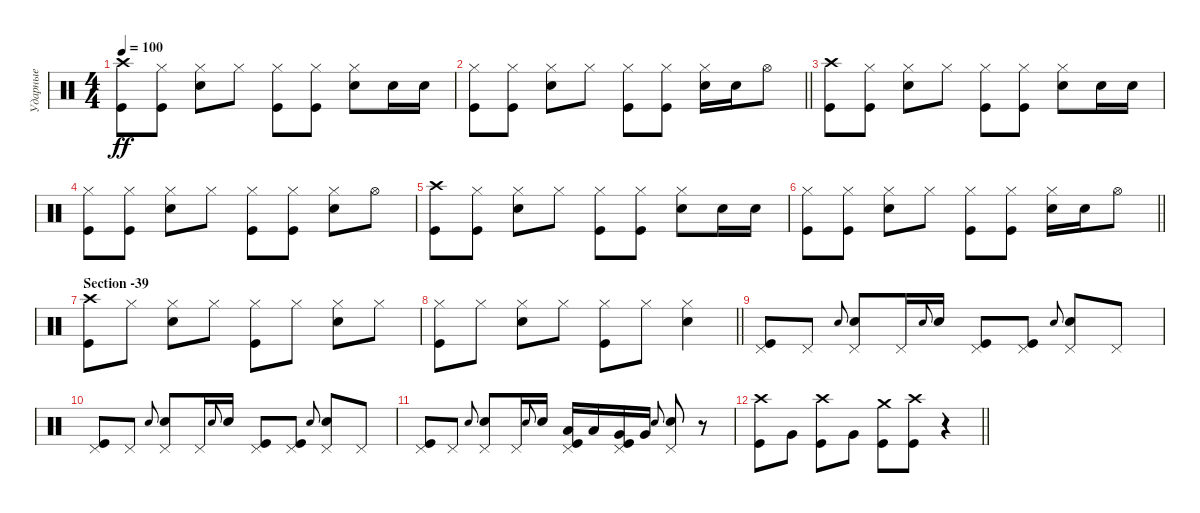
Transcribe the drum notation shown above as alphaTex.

\track ("Ударные" "Ударные") {instrument percussion}
\staff {score}
\articulation defaults
\ts (4 4)
\tempo 100
\clef neutral
\ks c
("Crash high (hit)" "Kick (hit)").8{dy ff} ("Hi-Hat (closed)" "Kick (hit)").8 ("Hi-Hat (closed)" "Electric Snare (hit)").8 "Hi-Hat (closed)".8 ("Hi-Hat (closed)" "Kick (hit)").8 ("Hi-Hat (closed)" "Kick (hit)").8 ("Hi-Hat (closed)" "Electric Snare (hit)").8 "Electric Snare (hit)".16 "Electric Snare (hit)".16 |
\barLineRight lightlight
("Hi-Hat (closed)" "Kick (hit)").8 ("Hi-Hat (closed)" "Kick (hit)").8 ("Hi-Hat (closed)" "Electric Snare (hit)").8 "Hi-Hat (closed)".8 ("Hi-Hat (closed)" "Kick (hit)").8 ("Hi-Hat (closed)" "Kick (hit)").8 ("Hi-Hat (closed)" "Electric Snare (hit)").16 "Electric Snare (hit)".16 "Hi-Hat (open)".8 |
("Crash high (hit)" "Kick (hit)").8 ("Hi-Hat (closed)" "Kick (hit)").8 ("Hi-Hat (closed)" "Electric Snare (hit)").8 "Hi-Hat (closed)".8 ("Hi-Hat (closed)" "Kick (hit)").8 ("Hi-Hat (closed)" "Kick (hit)").8 ("Hi-Hat (closed)" "Electric Snare (hit)").8 "Electric Snare (hit)".16 "Electric Snare (hit)".16 |
("Hi-Hat (closed)" "Kick (hit)").8 ("Hi-Hat (closed)" "Kick (hit)").8 ("Hi-Hat (closed)" "Electric Snare (hit)").8 "Hi-Hat (closed)".8 ("Hi-Hat (closed)" "Kick (hit)").8 ("Hi-Hat (closed)" "Kick (hit)").8 ("Hi-Hat (closed)" "Electric Snare (hit)").8 "Hi-Hat (open)".8 |
("Crash high (hit)" "Kick (hit)").8 ("Hi-Hat (closed)" "Kick (hit)").8 ("Hi-Hat (closed)" "Electric Snare (hit)").8 "Hi-Hat (closed)".8 ("Hi-Hat (closed)" "Kick (hit)").8 ("Hi-Hat (closed)" "Kick (hit)").8 ("Hi-Hat (closed)" "Electric Snare (hit)").8 "Electric Snare (hit)".16 "Electric Snare (hit)".16 |
\barLineRight lightlight
("Hi-Hat (closed)" "Kick (hit)").8 ("Hi-Hat (closed)" "Kick (hit)").8 ("Hi-Hat (closed)" "Electric Snare (hit)").8 "Hi-Hat (closed)".8 ("Hi-Hat (closed)" "Kick (hit)").8 ("Hi-Hat (closed)" "Kick (hit)").8 ("Hi-Hat (closed)" "Electric Snare (hit)").16 "Electric Snare (hit)".16 "Hi-Hat (open)".8 |
\section ("" "Section -39")
("Crash high (hit)" "Kick (hit)").8 "Hi-Hat (closed)".8 ("Hi-Hat (closed)" "Electric Snare (hit)").8 "Hi-Hat (closed)".8 ("Hi-Hat (closed)" "Kick (hit)").8 "Hi-Hat (closed)".8 ("Hi-Hat (closed)" "Electric Snare (hit)").8 "Hi-Hat (closed)".8 |
\barLineRight lightlight
("Hi-Hat (closed)" "Kick (hit)").8 "Hi-Hat (closed)".8 ("Hi-Hat (closed)" "Electric Snare (hit)").8 "Hi-Hat (closed)".8 ("Hi-Hat (closed)" "Kick (hit)").8 "Hi-Hat (closed)".8 ("Hi-Hat (closed)" "Electric Snare (hit)").4 |
("Pedal Hi-Hat (hit)" "Kick (hit)").8 "Pedal Hi-Hat (hit)".8 "Electric Snare (hit)".8{gr onbeat} ("Pedal Hi-Hat (hit)" "Electric Snare (hit)").8 "Pedal Hi-Hat (hit)".16 "Electric Snare (hit)".8{gr onbeat} "Electric Snare (hit)".16 ("Pedal Hi-Hat (hit)" "Kick (hit)").8 ("Pedal Hi-Hat (hit)" "Kick (hit)").8 "Electric Snare (hit)".8{gr onbeat} ("Pedal Hi-Hat (hit)" "Electric Snare (hit)").8 "Pedal Hi-Hat (hit)".8 |
("Pedal Hi-Hat (hit)" "Kick (hit)").8 "Pedal Hi-Hat (hit)".8 "Electric Snare (hit)".8{gr onbeat} ("Pedal Hi-Hat (hit)" "Electric Snare (hit)").8 "Pedal Hi-Hat (hit)".16 "Electric Snare (hit)".8{gr onbeat} "Electric Snare (hit)".16 ("Pedal Hi-Hat (hit)" "Kick (hit)").8 ("Pedal Hi-Hat (hit)" "Kick (hit)").8 "Electric Snare (hit)".8{gr onbeat} ("Pedal Hi-Hat (hit)" "Electric Snare (hit)").8 "Pedal Hi-Hat (hit)".8 |
("Pedal Hi-Hat (hit)" "Kick (hit)").8 "Pedal Hi-Hat (hit)".8 "Electric Snare (hit)".8{gr onbeat} ("Pedal Hi-Hat (hit)" "Electric Snare (hit)").8 "Pedal Hi-Hat (hit)".16 "Electric Snare (hit)".8{gr onbeat} "Electric Snare (hit)".16 ("Pedal Hi-Hat (hit)" "Low Tom (hit)" "Kick (hit)").16 "Low Tom (hit)".16 ("Pedal Hi-Hat (hit)" "Very Low Tom (hit)" "Kick (hit)").16 "Very Low Tom (hit)".16 "Electric Snare (hit)".8{gr onbeat} ("Pedal Hi-Hat (hit)" "Electric Snare (hit)").8 r.8 |
\barLineRight lightlight
("Crash high (hit)" "Kick (hit)").8 "Very Low Tom (hit)".8 ("Crash high (hit)" "Kick (hit)").8 "Very Low Tom (hit)".8 ("Crash medium (hit)" "Kick (hit)").8 ("Crash high (hit)" "Kick (hit)").8 r.4
